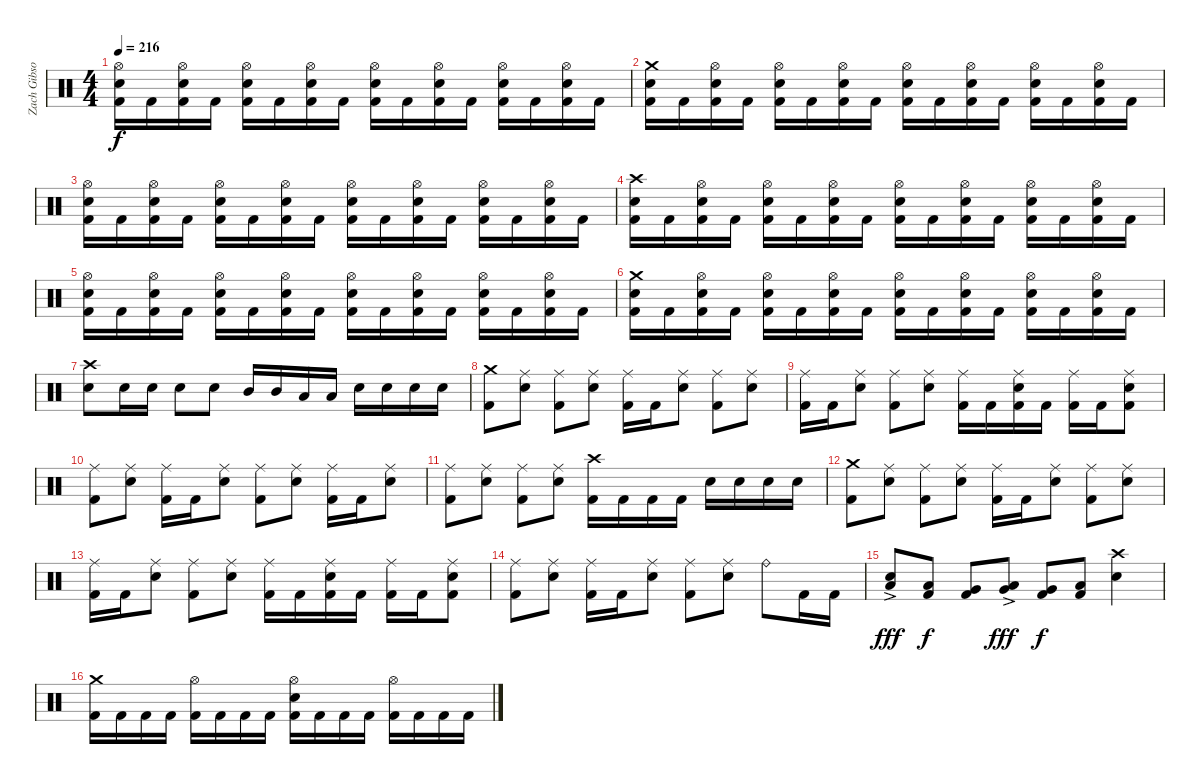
\track ("Zach Gibson (Ex-Drums)" "Zach Gibso") {instrument percussion}
\staff {score}
\articulation defaults
\ts (4 4)
\tempo 216
\clef neutral
\ks c
("Hi-Hat (open)" "Snare (hit) 2" "Kick (hit) 2").16{dy f} "Kick (hit) 2".16 ("Hi-Hat (open)" "Snare (hit) 2" "Kick (hit) 2").16 "Kick (hit) 2".16 ("Hi-Hat (open)" "Snare (hit) 2" "Kick (hit) 2").16 "Kick (hit) 2".16 ("Hi-Hat (open)" "Snare (hit) 2" "Kick (hit) 2").16 "Kick (hit) 2".16 ("Hi-Hat (open)" "Snare (hit) 2" "Kick (hit) 2").16 "Kick (hit) 2".16 ("Hi-Hat (open)" "Snare (hit) 2" "Kick (hit) 2").16 "Kick (hit) 2".16 ("Hi-Hat (open)" "Snare (hit) 2" "Kick (hit) 2").16 "Kick (hit) 2".16 ("Hi-Hat (open)" "Snare (hit) 2" "Kick (hit) 2").16 "Kick (hit) 2".16 |
("Crash medium (hit)" "Snare (hit) 2" "Kick (hit) 2").16 "Kick (hit) 2".16 ("Hi-Hat (open)" "Snare (hit) 2" "Kick (hit) 2").16 "Kick (hit) 2".16 ("Hi-Hat (open)" "Snare (hit) 2" "Kick (hit) 2").16 "Kick (hit) 2".16 ("Hi-Hat (open)" "Snare (hit) 2" "Kick (hit) 2").16 "Kick (hit) 2".16 ("Hi-Hat (open)" "Snare (hit) 2" "Kick (hit) 2").16 "Kick (hit) 2".16 ("Hi-Hat (open)" "Snare (hit) 2" "Kick (hit) 2").16 "Kick (hit) 2".16 ("Hi-Hat (open)" "Snare (hit) 2" "Kick (hit) 2").16 "Kick (hit) 2".16 ("Hi-Hat (open)" "Snare (hit) 2" "Kick (hit) 2").16 "Kick (hit) 2".16 |
("Hi-Hat (open)" "Snare (hit) 2" "Kick (hit) 2").16 "Kick (hit) 2".16 ("Hi-Hat (open)" "Snare (hit) 2" "Kick (hit) 2").16 "Kick (hit) 2".16 ("Hi-Hat (open)" "Snare (hit) 2" "Kick (hit) 2").16 "Kick (hit) 2".16 ("Hi-Hat (open)" "Snare (hit) 2" "Kick (hit) 2").16 "Kick (hit) 2".16 ("Hi-Hat (open)" "Snare (hit) 2" "Kick (hit) 2").16 "Kick (hit) 2".16 ("Hi-Hat (open)" "Snare (hit) 2" "Kick (hit) 2").16 "Kick (hit) 2".16 ("Hi-Hat (open)" "Snare (hit) 2" "Kick (hit) 2").16 "Kick (hit) 2".16 ("Hi-Hat (open)" "Snare (hit) 2" "Kick (hit) 2").16 "Kick (hit) 2".16 |
("Crash high (hit)" "Snare (hit) 2" "Kick (hit) 2").16 "Kick (hit) 2".16 ("Hi-Hat (open)" "Snare (hit) 2" "Kick (hit) 2").16 "Kick (hit) 2".16 ("Hi-Hat (open)" "Snare (hit) 2" "Kick (hit) 2").16 "Kick (hit) 2".16 ("Hi-Hat (open)" "Snare (hit) 2" "Kick (hit) 2").16 "Kick (hit) 2".16 ("Hi-Hat (open)" "Snare (hit) 2" "Kick (hit) 2").16 "Kick (hit) 2".16 ("Hi-Hat (open)" "Snare (hit) 2" "Kick (hit) 2").16 "Kick (hit) 2".16 ("Hi-Hat (open)" "Snare (hit) 2" "Kick (hit) 2").16 "Kick (hit) 2".16 ("Hi-Hat (open)" "Snare (hit) 2" "Kick (hit) 2").16 "Kick (hit) 2".16 |
("Hi-Hat (open)" "Snare (hit) 2" "Kick (hit) 2").16 "Kick (hit) 2".16 ("Hi-Hat (open)" "Snare (hit) 2" "Kick (hit) 2").16 "Kick (hit) 2".16 ("Hi-Hat (open)" "Snare (hit) 2" "Kick (hit) 2").16 "Kick (hit) 2".16 ("Hi-Hat (open)" "Snare (hit) 2" "Kick (hit) 2").16 "Kick (hit) 2".16 ("Hi-Hat (open)" "Snare (hit) 2" "Kick (hit) 2").16 "Kick (hit) 2".16 ("Hi-Hat (open)" "Snare (hit) 2" "Kick (hit) 2").16 "Kick (hit) 2".16 ("Hi-Hat (open)" "Snare (hit) 2" "Kick (hit) 2").16 "Kick (hit) 2".16 ("Hi-Hat (open)" "Snare (hit) 2" "Kick (hit) 2").16 "Kick (hit) 2".16 |
("Crash medium (hit)" "Snare (hit) 2" "Kick (hit) 2").16 "Kick (hit) 2".16 ("Hi-Hat (open)" "Snare (hit) 2" "Kick (hit) 2").16 "Kick (hit) 2".16 ("Hi-Hat (open)" "Snare (hit) 2" "Kick (hit) 2").16 "Kick (hit) 2".16 ("Hi-Hat (open)" "Snare (hit) 2" "Kick (hit) 2").16 "Kick (hit) 2".16 ("Hi-Hat (open)" "Snare (hit) 2" "Kick (hit) 2").16 "Kick (hit) 2".16 ("Hi-Hat (open)" "Snare (hit) 2" "Kick (hit) 2").16 "Kick (hit) 2".16 ("Hi-Hat (open)" "Snare (hit) 2" "Kick (hit) 2").16 "Kick (hit) 2".16 ("Hi-Hat (open)" "Snare (hit) 2" "Kick (hit) 2").16 "Kick (hit) 2".16 |
("Crash high (hit)" "Snare (hit) 2").8 "Snare (hit) 2".16 "Snare (hit) 2".16 "Snare (hit) 2".8 "Snare (hit) 2".8 "Mid Tom (hit)".16 "Mid Tom (hit)".16 "Low Tom (hit)".16 "Low Tom (hit)".16 "Snare (hit) 2".16 "Snare (hit) 2".16 "Snare (hit) 2".16 "Snare (hit) 2".16 |
("Crash medium (hit)" "Kick (hit) 2").8 ("Ride (middle)" "Snare (hit) 2").8 ("Ride (middle)" "Kick (hit) 2").8 ("Ride (middle)" "Snare (hit) 2").8 ("Ride (middle)" "Kick (hit) 2").16 "Kick (hit) 2".16 ("Ride (middle)" "Snare (hit) 2").8 ("Ride (middle)" "Kick (hit) 2").8 ("Ride (middle)" "Snare (hit) 2").8 |
("Ride (middle)" "Kick (hit) 2").16 "Kick (hit) 2".16 ("Ride (middle)" "Snare (hit) 2").8 ("Ride (middle)" "Kick (hit) 2").8 ("Ride (middle)" "Snare (hit) 2").8 ("Ride (middle)" "Kick (hit) 2").16 "Kick (hit) 2".16 ("Ride (middle)" "Snare (hit) 2" "Kick (hit) 2").16 "Kick (hit) 2".16 ("Ride (middle)" "Kick (hit) 2").16 "Kick (hit) 2".16 ("Ride (middle)" "Snare (hit) 2" "Kick (hit) 2").8 |
("Ride (middle)" "Kick (hit) 2").8 ("Ride (middle)" "Snare (hit) 2").8 ("Ride (middle)" "Kick (hit) 2").16 "Kick (hit) 2".16 ("Ride (middle)" "Snare (hit) 2").8 ("Ride (middle)" "Kick (hit) 2").8 ("Ride (middle)" "Snare (hit) 2").8 ("Ride (middle)" "Kick (hit) 2").16 "Kick (hit) 2".16 ("Ride (middle)" "Snare (hit) 2").8 |
("Ride (middle)" "Kick (hit) 2").8 ("Ride (middle)" "Snare (hit) 2").8 ("Ride (middle)" "Kick (hit) 2").8 ("Ride (middle)" "Snare (hit) 2").8 ("Crash high (hit)" "Kick (hit) 2").16 "Kick (hit) 2".16 "Kick (hit) 2".16 "Kick (hit) 2".16 "Snare (hit) 2".16 "Snare (hit) 2".16 "Snare (hit) 2".16 "Snare (hit) 2".16 |
("Crash medium (hit)" "Kick (hit) 2").8 ("Ride (middle)" "Snare (hit) 2").8 ("Ride (middle)" "Kick (hit) 2").8 ("Ride (middle)" "Snare (hit) 2").8 ("Ride (middle)" "Kick (hit) 2").16 "Kick (hit) 2".16 ("Ride (middle)" "Snare (hit) 2").8 ("Ride (middle)" "Kick (hit) 2").8 ("Ride (middle)" "Snare (hit) 2").8 |
("Ride (middle)" "Kick (hit) 2").16 "Kick (hit) 2".16 ("Ride (middle)" "Snare (hit) 2").8 ("Ride (middle)" "Kick (hit) 2").8 ("Ride (middle)" "Snare (hit) 2").8 ("Ride (middle)" "Kick (hit) 2").16 "Kick (hit) 2".16 ("Ride (middle)" "Snare (hit) 2" "Kick (hit) 2").16 "Kick (hit) 2".16 ("Ride (middle)" "Kick (hit) 2").16 "Kick (hit) 2".16 ("Ride (middle)" "Snare (hit) 2" "Kick (hit) 2").8 |
("Ride (middle)" "Kick (hit) 2").8 ("Ride (middle)" "Snare (hit) 2").8 ("Ride (middle)" "Kick (hit) 2").16 "Kick (hit) 2".16 ("Ride (middle)" "Snare (hit) 2").8 ("Ride (middle)" "Kick (hit) 2").8 ("Ride (middle)" "Snare (hit) 2").8 "Ride (bell)".8 "Kick (hit) 2".16 "Kick (hit) 2".16 |
("Low Floor Tom (hit)"{ac} "Snare (hit) 2"{ac}).8{dy fff} ("Low Tom (hit)" "Kick (hit) 2").8{dy f} ("Very Low Tom (hit)" "Kick (hit) 2").8 ("Low Floor Tom (hit)"{ac} "Very Low Tom (hit)"{ac}).8{dy fff} ("Very Low Tom (hit)" "Kick (hit) 2").8{dy f} ("Low Floor Tom (hit)" "Kick (hit) 2").8 ("Crash high (hit)" "Snare (hit) 2").4 |
("Crash medium (hit)" "Kick (hit) 2").16 "Kick (hit) 2".16 "Kick (hit) 2".16 "Kick (hit) 2".16 ("Hi-Hat (open)" "Kick (hit) 2").16 "Kick (hit) 2".16 "Kick (hit) 2".16 "Kick (hit) 2".16 ("Hi-Hat (open)" "Snare (hit) 2" "Kick (hit) 2").16 "Kick (hit) 2".16 "Kick (hit) 2".16 "Kick (hit) 2".16 ("Hi-Hat (open)" "Kick (hit) 2").16 "Kick (hit) 2".16 "Kick (hit) 2".16 "Kick (hit) 2".16
